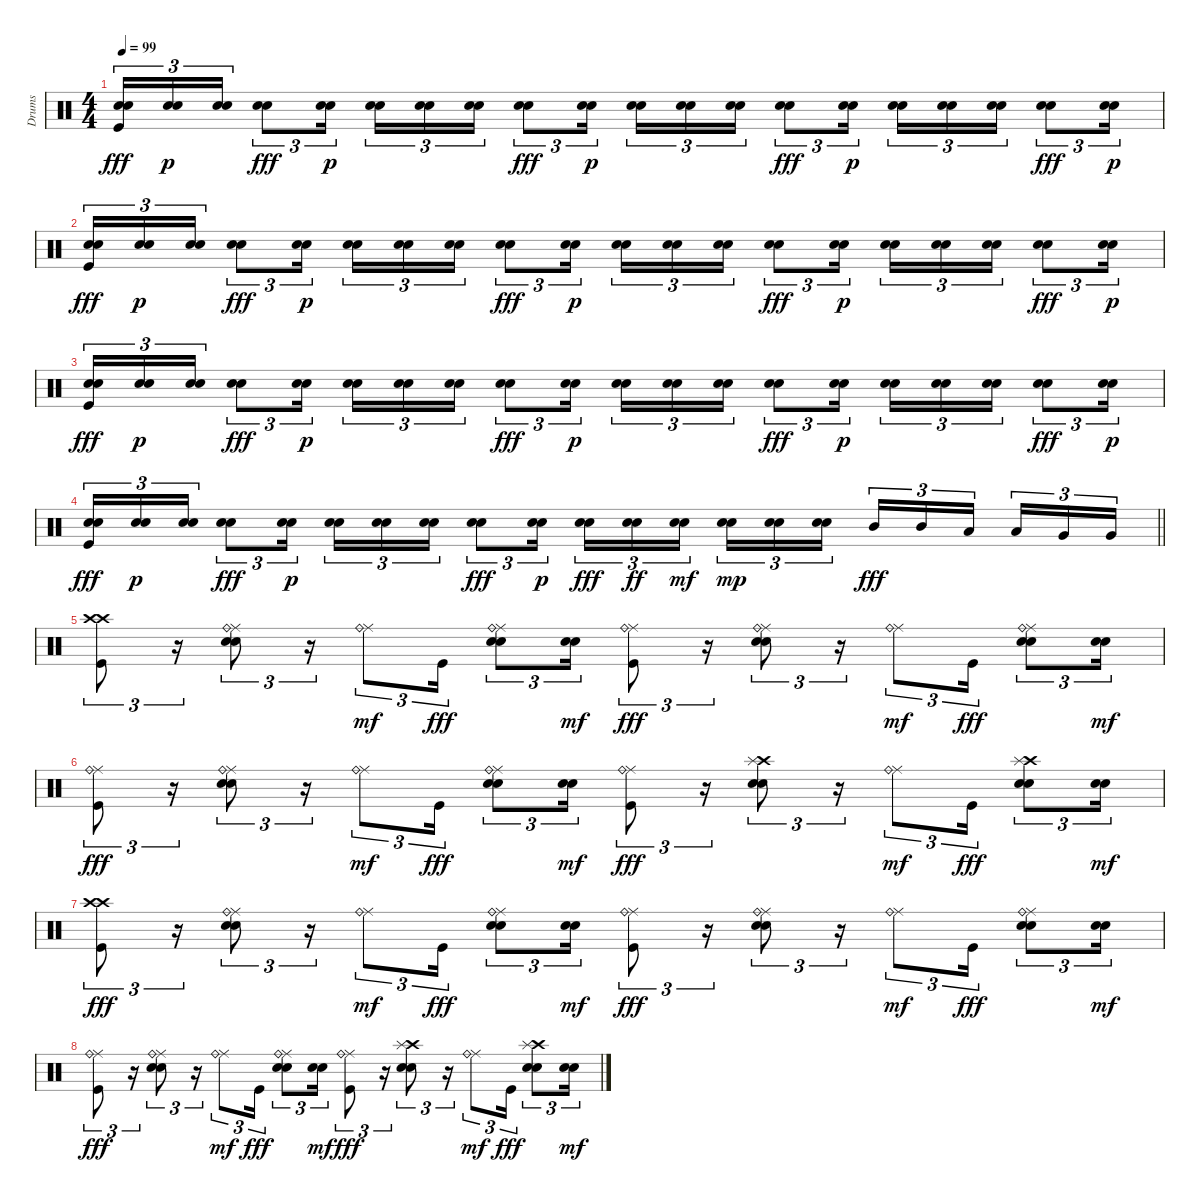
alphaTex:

\track ("Drums" "Drums") {instrument percussion}
\staff {score}
\articulation defaults
\ts (4 4)
\tempo 99
\clef neutral
\ks c
("Snare (hit) 2" "Electric Snare (hit)" "Kick (hit)").16{tu (3 2) dy fff} ("Snare (hit) 2" "Electric Snare (hit)").16{tu (3 2) dy p} ("Snare (hit) 2" "Electric Snare (hit)").16{tu (3 2)} ("Snare (hit) 2" "Electric Snare (hit)").8{tu (3 2) dy fff} ("Snare (hit) 2" "Electric Snare (hit)").16{tu (3 2) dy p} ("Snare (hit) 2" "Electric Snare (hit)").16{tu (3 2)} ("Snare (hit) 2" "Electric Snare (hit)").16{tu (3 2)} ("Snare (hit) 2" "Electric Snare (hit)").16{tu (3 2)} ("Snare (hit) 2" "Electric Snare (hit)").8{tu (3 2) dy fff} ("Snare (hit) 2" "Electric Snare (hit)").16{tu (3 2) dy p} ("Snare (hit) 2" "Electric Snare (hit)").16{tu (3 2)} ("Snare (hit) 2" "Electric Snare (hit)").16{tu (3 2)} ("Snare (hit) 2" "Electric Snare (hit)").16{tu (3 2)} ("Snare (hit) 2" "Electric Snare (hit)").8{tu (3 2) dy fff} ("Snare (hit) 2" "Electric Snare (hit)").16{tu (3 2) dy p} ("Snare (hit) 2" "Electric Snare (hit)").16{tu (3 2)} ("Snare (hit) 2" "Electric Snare (hit)").16{tu (3 2)} ("Snare (hit) 2" "Electric Snare (hit)").16{tu (3 2)} ("Snare (hit) 2" "Electric Snare (hit)").8{tu (3 2) dy fff} ("Snare (hit) 2" "Electric Snare (hit)").16{tu (3 2) dy p} |
("Snare (hit) 2" "Electric Snare (hit)" "Kick (hit)").16{tu (3 2) dy fff} ("Snare (hit) 2" "Electric Snare (hit)").16{tu (3 2) dy p} ("Snare (hit) 2" "Electric Snare (hit)").16{tu (3 2)} ("Snare (hit) 2" "Electric Snare (hit)").8{tu (3 2) dy fff} ("Snare (hit) 2" "Electric Snare (hit)").16{tu (3 2) dy p} ("Snare (hit) 2" "Electric Snare (hit)").16{tu (3 2)} ("Snare (hit) 2" "Electric Snare (hit)").16{tu (3 2)} ("Snare (hit) 2" "Electric Snare (hit)").16{tu (3 2)} ("Snare (hit) 2" "Electric Snare (hit)").8{tu (3 2) dy fff} ("Snare (hit) 2" "Electric Snare (hit)").16{tu (3 2) dy p} ("Snare (hit) 2" "Electric Snare (hit)").16{tu (3 2)} ("Snare (hit) 2" "Electric Snare (hit)").16{tu (3 2)} ("Snare (hit) 2" "Electric Snare (hit)").16{tu (3 2)} ("Snare (hit) 2" "Electric Snare (hit)").8{tu (3 2) dy fff} ("Snare (hit) 2" "Electric Snare (hit)").16{tu (3 2) dy p} ("Snare (hit) 2" "Electric Snare (hit)").16{tu (3 2)} ("Snare (hit) 2" "Electric Snare (hit)").16{tu (3 2)} ("Snare (hit) 2" "Electric Snare (hit)").16{tu (3 2)} ("Snare (hit) 2" "Electric Snare (hit)").8{tu (3 2) dy fff} ("Snare (hit) 2" "Electric Snare (hit)").16{tu (3 2) dy p} |
("Snare (hit) 2" "Electric Snare (hit)" "Kick (hit)").16{tu (3 2) dy fff} ("Snare (hit) 2" "Electric Snare (hit)").16{tu (3 2) dy p} ("Snare (hit) 2" "Electric Snare (hit)").16{tu (3 2)} ("Snare (hit) 2" "Electric Snare (hit)").8{tu (3 2) dy fff} ("Snare (hit) 2" "Electric Snare (hit)").16{tu (3 2) dy p} ("Snare (hit) 2" "Electric Snare (hit)").16{tu (3 2)} ("Snare (hit) 2" "Electric Snare (hit)").16{tu (3 2)} ("Snare (hit) 2" "Electric Snare (hit)").16{tu (3 2)} ("Snare (hit) 2" "Electric Snare (hit)").8{tu (3 2) dy fff} ("Snare (hit) 2" "Electric Snare (hit)").16{tu (3 2) dy p} ("Snare (hit) 2" "Electric Snare (hit)").16{tu (3 2)} ("Snare (hit) 2" "Electric Snare (hit)").16{tu (3 2)} ("Snare (hit) 2" "Electric Snare (hit)").16{tu (3 2)} ("Snare (hit) 2" "Electric Snare (hit)").8{tu (3 2) dy fff} ("Snare (hit) 2" "Electric Snare (hit)").16{tu (3 2) dy p} ("Snare (hit) 2" "Electric Snare (hit)").16{tu (3 2)} ("Snare (hit) 2" "Electric Snare (hit)").16{tu (3 2)} ("Snare (hit) 2" "Electric Snare (hit)").16{tu (3 2)} ("Snare (hit) 2" "Electric Snare (hit)").8{tu (3 2) dy fff} ("Snare (hit) 2" "Electric Snare (hit)").16{tu (3 2) dy p} |
\barLineRight lightlight
("Snare (hit) 2" "Electric Snare (hit)" "Kick (hit)").16{tu (3 2) dy fff} ("Snare (hit) 2" "Electric Snare (hit)").16{tu (3 2) dy p} ("Snare (hit) 2" "Electric Snare (hit)").16{tu (3 2)} ("Snare (hit) 2" "Electric Snare (hit)").8{tu (3 2) dy fff} ("Snare (hit) 2" "Electric Snare (hit)").16{tu (3 2) dy p} ("Snare (hit) 2" "Electric Snare (hit)").16{tu (3 2)} ("Snare (hit) 2" "Electric Snare (hit)").16{tu (3 2)} ("Snare (hit) 2" "Electric Snare (hit)").16{tu (3 2)} ("Snare (hit) 2" "Electric Snare (hit)").8{tu (3 2) dy fff} ("Snare (hit) 2" "Electric Snare (hit)").16{tu (3 2) dy p} ("Snare (hit) 2" "Electric Snare (hit)").16{tu (3 2) dy fff} ("Snare (hit) 2" "Electric Snare (hit)").16{tu (3 2) dy ff} ("Snare (hit) 2" "Electric Snare (hit)").16{tu (3 2) dy mf beam splitsecondary} ("Snare (hit) 2" "Electric Snare (hit)").16{tu (3 2) dy mp} ("Snare (hit) 2" "Electric Snare (hit)").16{tu (3 2)} ("Snare (hit) 2" "Electric Snare (hit)").16{tu (3 2)} "Mid Tom (hit)".16{tu (3 2) dy fff} "Mid Tom (hit)".16{tu (3 2)} "Low Tom (hit)".16{tu (3 2) beam splitsecondary} "Low Tom (hit)".16{tu (3 2)} "Very Low Tom (hit)".16{tu (3 2)} "Very Low Tom (hit)".16{tu (3 2)} |
("Crash high (hit)" "Crash high (hit)" "Kick (hit)").8{tu (3 2)} r.16{tu (3 2)} ("Ride (middle)" "Ride (bell)" "Snare (hit) 2" "Electric Snare (hit)").8{tu (3 2)} r.16{tu (3 2)} ("Ride (middle)" "Ride (bell)").8{tu (3 2) dy mf} "Kick (hit)".16{tu (3 2) dy fff} ("Ride (middle)" "Ride (bell)" "Snare (hit) 2" "Electric Snare (hit)").8{tu (3 2)} ("Snare (hit) 2" "Electric Snare (hit)").16{tu (3 2) dy mf} ("Ride (middle)" "Ride (bell)" "Kick (hit)").8{tu (3 2) dy fff} r.16{tu (3 2)} ("Ride (middle)" "Ride (bell)" "Snare (hit) 2" "Electric Snare (hit)").8{tu (3 2)} r.16{tu (3 2)} ("Ride (middle)" "Ride (bell)").8{tu (3 2) dy mf} "Kick (hit)".16{tu (3 2) dy fff} ("Ride (middle)" "Ride (bell)" "Snare (hit) 2" "Electric Snare (hit)").8{tu (3 2)} ("Snare (hit) 2" "Electric Snare (hit)").16{tu (3 2) dy mf} |
("Ride (middle)" "Ride (bell)" "Kick (hit)").8{tu (3 2) dy fff} r.16{tu (3 2)} ("Ride (middle)" "Ride (bell)" "Snare (hit) 2" "Electric Snare (hit)").8{tu (3 2)} r.16{tu (3 2)} ("Ride (middle)" "Ride (bell)").8{tu (3 2) dy mf} "Kick (hit)".16{tu (3 2) dy fff} ("Ride (middle)" "Ride (bell)" "Snare (hit) 2" "Electric Snare (hit)").8{tu (3 2)} ("Snare (hit) 2" "Electric Snare (hit)").16{tu (3 2) dy mf} ("Ride (middle)" "Ride (bell)" "Kick (hit)").8{tu (3 2) dy fff} r.16{tu (3 2)} ("Crash high (hit)" "Splash (hit)" "Snare (hit) 2" "Electric Snare (hit)").8{tu (3 2)} r.16{tu (3 2)} ("Ride (middle)" "Ride (bell)").8{tu (3 2) dy mf} "Kick (hit)".16{tu (3 2) dy fff} ("Crash high (hit)" "Splash (hit)" "Snare (hit) 2" "Electric Snare (hit)").8{tu (3 2)} ("Snare (hit) 2" "Electric Snare (hit)").16{tu (3 2) dy mf} |
("Crash high (hit)" "Crash high (hit)" "Kick (hit)").8{tu (3 2) dy fff} r.16{tu (3 2)} ("Ride (middle)" "Ride (bell)" "Snare (hit) 2" "Electric Snare (hit)").8{tu (3 2)} r.16{tu (3 2)} ("Ride (middle)" "Ride (bell)").8{tu (3 2) dy mf} "Kick (hit)".16{tu (3 2) dy fff} ("Ride (middle)" "Ride (bell)" "Snare (hit) 2" "Electric Snare (hit)").8{tu (3 2)} ("Snare (hit) 2" "Electric Snare (hit)").16{tu (3 2) dy mf} ("Ride (middle)" "Ride (bell)" "Kick (hit)").8{tu (3 2) dy fff} r.16{tu (3 2)} ("Ride (middle)" "Ride (bell)" "Snare (hit) 2" "Electric Snare (hit)").8{tu (3 2)} r.16{tu (3 2)} ("Ride (middle)" "Ride (bell)").8{tu (3 2) dy mf} "Kick (hit)".16{tu (3 2) dy fff} ("Ride (middle)" "Ride (bell)" "Snare (hit) 2" "Electric Snare (hit)").8{tu (3 2)} ("Snare (hit) 2" "Electric Snare (hit)").16{tu (3 2) dy mf} |
("Ride (middle)" "Ride (bell)" "Kick (hit)").8{tu (3 2) dy fff} r.16{tu (3 2)} ("Ride (middle)" "Ride (bell)" "Snare (hit) 2" "Electric Snare (hit)").8{tu (3 2)} r.16{tu (3 2)} ("Ride (middle)" "Ride (bell)").8{tu (3 2) dy mf} "Kick (hit)".16{tu (3 2) dy fff} ("Ride (middle)" "Ride (bell)" "Snare (hit) 2" "Electric Snare (hit)").8{tu (3 2)} ("Snare (hit) 2" "Electric Snare (hit)").16{tu (3 2) dy mf} ("Ride (middle)" "Ride (bell)" "Kick (hit)").8{tu (3 2) dy fff} r.16{tu (3 2)} ("Crash high (hit)" "Splash (hit)" "Snare (hit) 2" "Electric Snare (hit)").8{tu (3 2)} r.16{tu (3 2)} ("Ride (middle)" "Ride (bell)").8{tu (3 2) dy mf} "Kick (hit)".16{tu (3 2) dy fff} ("Crash high (hit)" "Splash (hit)" "Snare (hit) 2" "Electric Snare (hit)").8{tu (3 2)} ("Snare (hit) 2" "Electric Snare (hit)").16{tu (3 2) dy mf}
